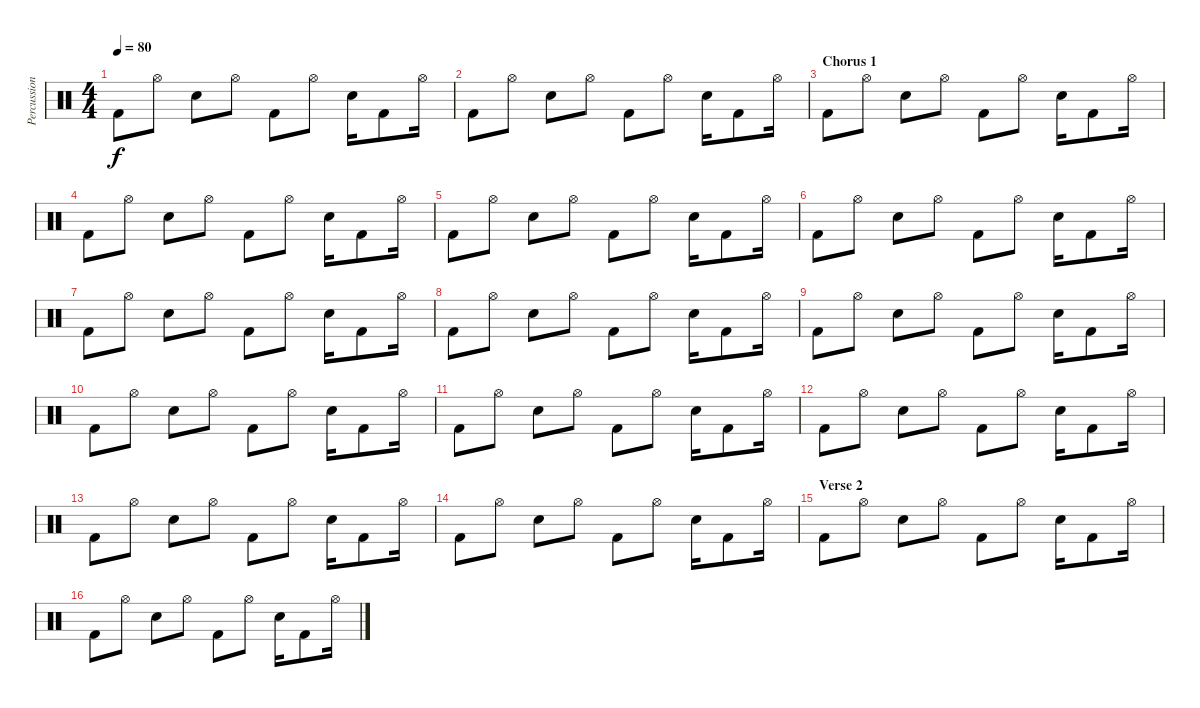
\track ("Percussion" "Percussion") {instrument percussion}
\staff {score}
\articulation defaults
\ts (4 4)
\tempo 80
\clef neutral
\ks c "Kick (hit) 2".8{dy f} "Hi-Hat (open)".8 "Electric Snare (hit)".8 "Hi-Hat (open)".8 "Kick (hit) 2".8 "Hi-Hat (open)".8 "Electric Snare (hit)".16 "Kick (hit) 2".8 "Hi-Hat (open)".16
|
"Kick (hit) 2".8 "Hi-Hat (open)".8 "Electric Snare (hit)".8 "Hi-Hat (open)".8 "Kick (hit) 2".8 "Hi-Hat (open)".8 "Electric Snare (hit)".16 "Kick (hit) 2".8 "Hi-Hat (open)".16 |
\section ("" "Chorus 1")
"Kick (hit) 2".8 "Hi-Hat (open)".8 "Electric Snare (hit)".8 "Hi-Hat (open)".8 "Kick (hit) 2".8 "Hi-Hat (open)".8 "Electric Snare (hit)".16 "Kick (hit) 2".8 "Hi-Hat (open)".16 |
"Kick (hit) 2".8 "Hi-Hat (open)".8 "Electric Snare (hit)".8 "Hi-Hat (open)".8 "Kick (hit) 2".8 "Hi-Hat (open)".8 "Electric Snare (hit)".16 "Kick (hit) 2".8 "Hi-Hat (open)".16 |
"Kick (hit) 2".8 "Hi-Hat (open)".8 "Electric Snare (hit)".8 "Hi-Hat (open)".8 "Kick (hit) 2".8 "Hi-Hat (open)".8 "Electric Snare (hit)".16 "Kick (hit) 2".8 "Hi-Hat (open)".16 |
"Kick (hit) 2".8 "Hi-Hat (open)".8 "Electric Snare (hit)".8 "Hi-Hat (open)".8 "Kick (hit) 2".8 "Hi-Hat (open)".8 "Electric Snare (hit)".16 "Kick (hit) 2".8 "Hi-Hat (open)".16 |
"Kick (hit) 2".8 "Hi-Hat (open)".8 "Electric Snare (hit)".8 "Hi-Hat (open)".8 "Kick (hit) 2".8 "Hi-Hat (open)".8 "Electric Snare (hit)".16 "Kick (hit) 2".8 "Hi-Hat (open)".16 |
"Kick (hit) 2".8 "Hi-Hat (open)".8 "Electric Snare (hit)".8 "Hi-Hat (open)".8 "Kick (hit) 2".8 "Hi-Hat (open)".8 "Electric Snare (hit)".16 "Kick (hit) 2".8 "Hi-Hat (open)".16 |
"Kick (hit) 2".8 "Hi-Hat (open)".8 "Electric Snare (hit)".8 "Hi-Hat (open)".8 "Kick (hit) 2".8 "Hi-Hat (open)".8 "Electric Snare (hit)".16 "Kick (hit) 2".8 "Hi-Hat (open)".16 |
"Kick (hit) 2".8 "Hi-Hat (open)".8 "Electric Snare (hit)".8 "Hi-Hat (open)".8 "Kick (hit) 2".8 "Hi-Hat (open)".8 "Electric Snare (hit)".16 "Kick (hit) 2".8 "Hi-Hat (open)".16 |
"Kick (hit) 2".8 "Hi-Hat (open)".8 "Electric Snare (hit)".8 "Hi-Hat (open)".8 "Kick (hit) 2".8 "Hi-Hat (open)".8 "Electric Snare (hit)".16 "Kick (hit) 2".8 "Hi-Hat (open)".16 |
"Kick (hit) 2".8 "Hi-Hat (open)".8 "Electric Snare (hit)".8 "Hi-Hat (open)".8 "Kick (hit) 2".8 "Hi-Hat (open)".8 "Electric Snare (hit)".16 "Kick (hit) 2".8 "Hi-Hat (open)".16 |
"Kick (hit) 2".8 "Hi-Hat (open)".8 "Electric Snare (hit)".8 "Hi-Hat (open)".8 "Kick (hit) 2".8 "Hi-Hat (open)".8 "Electric Snare (hit)".16 "Kick (hit) 2".8 "Hi-Hat (open)".16 |
"Kick (hit) 2".8 "Hi-Hat (open)".8 "Electric Snare (hit)".8 "Hi-Hat (open)".8 "Kick (hit) 2".8 "Hi-Hat (open)".8 "Electric Snare (hit)".16 "Kick (hit) 2".8 "Hi-Hat (open)".16 |
\section ("" "Verse 2")
"Kick (hit) 2".8 "Hi-Hat (open)".8 "Electric Snare (hit)".8 "Hi-Hat (open)".8 "Kick (hit) 2".8 "Hi-Hat (open)".8 "Electric Snare (hit)".16 "Kick (hit) 2".8 "Hi-Hat (open)".16 |
"Kick (hit) 2".8 "Hi-Hat (open)".8 "Electric Snare (hit)".8 "Hi-Hat (open)".8 "Kick (hit) 2".8 "Hi-Hat (open)".8 "Electric Snare (hit)".16 "Kick (hit) 2".8 "Hi-Hat (open)".16
